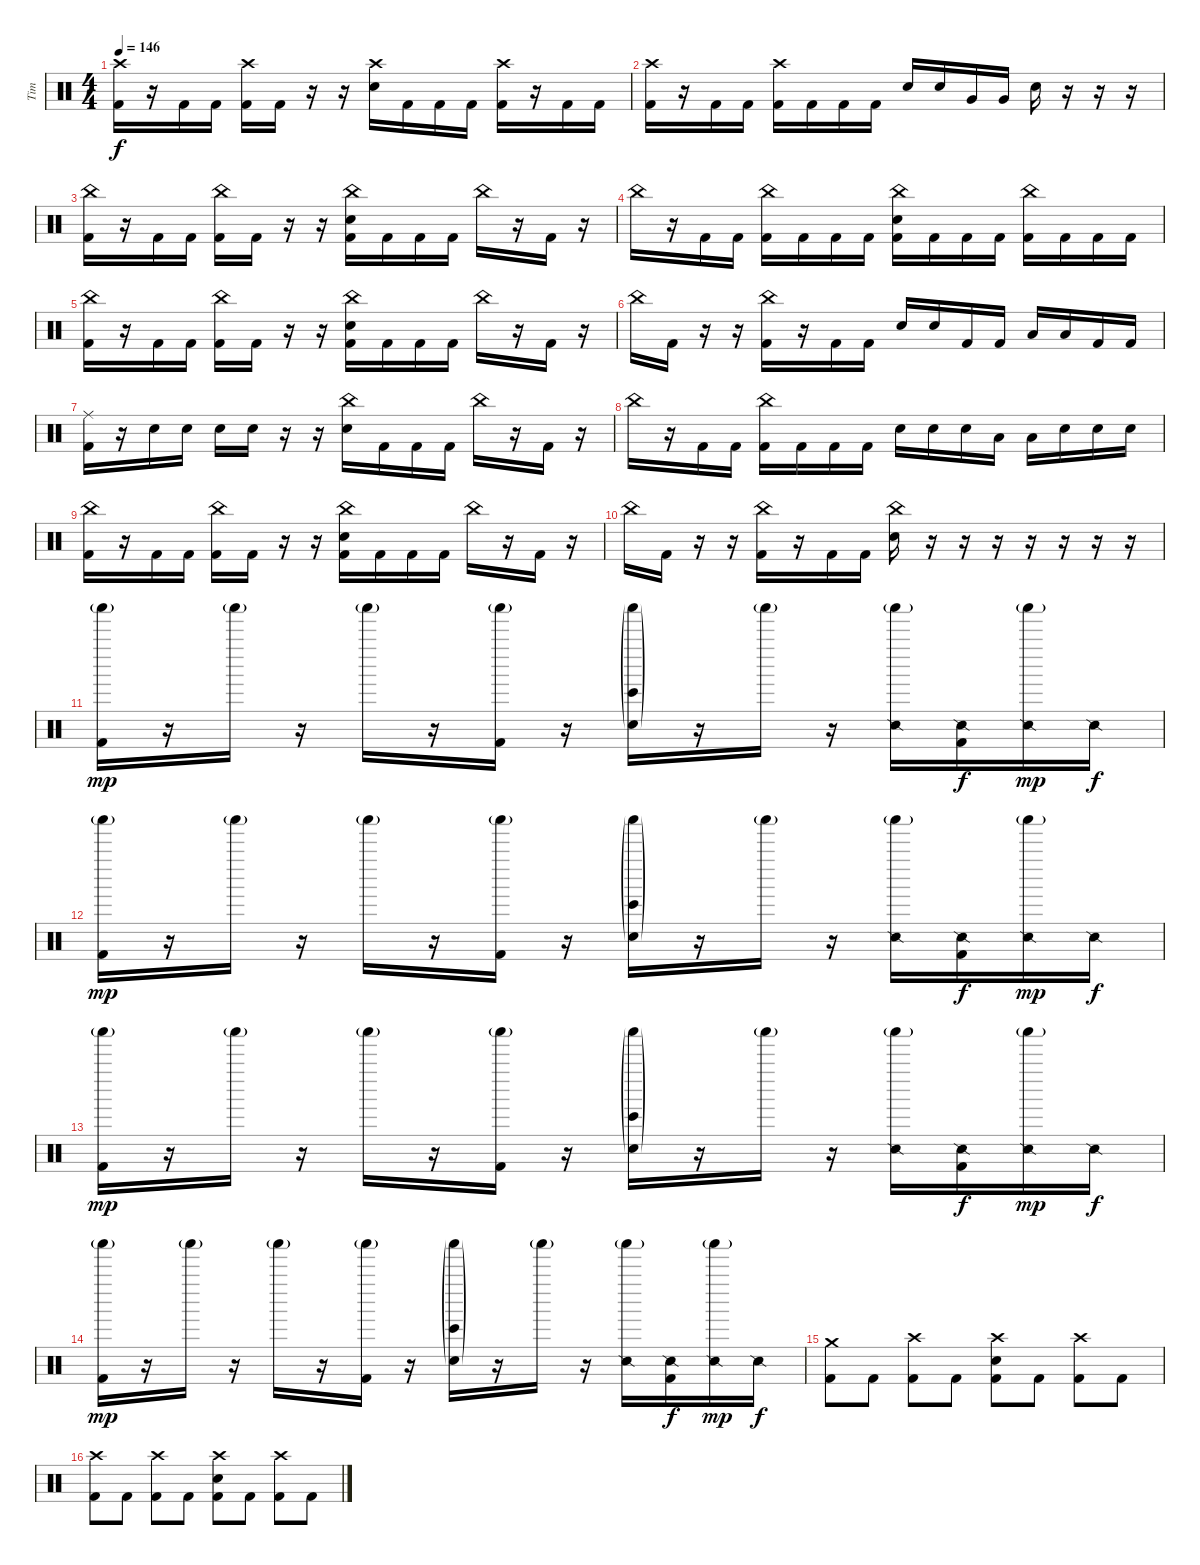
\track ("Tim" "Tim") {instrument percussion}
\staff {score}
\articulation defaults
\ts (4 4)
\tempo 146
\clef neutral
\ks c
("Crash high (hit)" "Kick (hit) 2").16{dy f} r.16 "Kick (hit) 2".16 "Kick (hit) 2".16 ("Crash high (hit)" "Kick (hit) 2").16 "Kick (hit) 2".16 r.16 r.16 ("Crash high (hit)" "Electric Snare (hit)").16 "Kick (hit) 2".16 "Kick (hit) 2".16 "Kick (hit) 2".16 ("Crash high (hit)" "Kick (hit) 2").16 r.16 "Kick (hit) 2".16 "Kick (hit) 2".16 |
("Crash high (hit)" "Kick (hit) 2").16 r.16 "Kick (hit) 2".16 "Kick (hit) 2".16 ("Crash high (hit)" "Kick (hit) 2").16 "Kick (hit) 2".16 "Kick (hit) 2".16 "Kick (hit) 2".16 "Electric Snare (hit)".16 "Electric Snare (hit)".16 "Very Low Tom (hit)".16 "Very Low Tom (hit)".16 "Electric Snare (hit)".16 r.16 r.16 r.16 |
("China (hit)" "Kick (hit) 2").16 r.16 "Kick (hit) 2".16 "Kick (hit) 2".16 ("China (hit)" "Kick (hit) 2").16 "Kick (hit) 2".16 r.16 r.16 ("China (hit)" "Electric Snare (hit)" "Kick (hit) 2").16 "Kick (hit) 2".16 "Kick (hit) 2".16 "Kick (hit) 2".16 "China (hit)".16 r.16 "Kick (hit) 2".16 r.16 |
"China (hit)".16 r.16 "Kick (hit) 2".16 "Kick (hit) 2".16 ("China (hit)" "Kick (hit) 2").16 "Kick (hit) 2".16 "Kick (hit) 2".16 "Kick (hit) 2".16 ("China (hit)" "Electric Snare (hit)" "Kick (hit) 2").16 "Kick (hit) 2".16 "Kick (hit) 2".16 "Kick (hit) 2".16 ("China (hit)" "Kick (hit) 2").16 "Kick (hit) 2".16 "Kick (hit) 2".16 "Kick (hit) 2".16 |
("China (hit)" "Kick (hit) 2").16 r.16 "Kick (hit) 2".16 "Kick (hit) 2".16 ("China (hit)" "Kick (hit) 2").16 "Kick (hit) 2".16 r.16 r.16 ("China (hit)" "Electric Snare (hit)" "Kick (hit) 2").16 "Kick (hit) 2".16 "Kick (hit) 2".16 "Kick (hit) 2".16 "China (hit)".16 r.16 "Kick (hit) 2".16 r.16 |
"China (hit)".16 "Kick (hit) 2".16 r.16 r.16 ("China (hit)" "Kick (hit) 2").16 r.16 "Kick (hit) 2".16 "Kick (hit) 2".16 "Electric Snare (hit)".16 "Electric Snare (hit)".16 "Kick (hit) 2".16 "Kick (hit) 2".16 "Low Tom (hit)".16 "Low Tom (hit)".16 "Kick (hit) 2".16 "Kick (hit) 2".16 |
("Ride (middle)" "Kick (hit) 2").16 r.16 "Electric Snare (hit)".16 "Electric Snare (hit)".16 "Electric Snare (hit)".16 "Electric Snare (hit)".16 r.16 r.16 ("China (hit)" "Electric Snare (hit)").16 "Kick (hit) 2".16 "Kick (hit) 2".16 "Kick (hit) 2".16 "China (hit)".16 r.16 "Kick (hit) 2".16 r.16 |
"China (hit)".16 r.16 "Kick (hit) 2".16 "Kick (hit) 2".16 ("China (hit)" "Kick (hit) 2").16 "Kick (hit) 2".16 "Kick (hit) 2".16 "Kick (hit) 2".16 "Electric Snare (hit)".16 "Electric Snare (hit)".16 "Electric Snare (hit)".16 "Low Tom (hit)".16 "Low Tom (hit)".16 "Electric Snare (hit)".16 "Electric Snare (hit)".16 "Electric Snare (hit)".16 |
("China (hit)" "Kick (hit) 2").16 r.16 "Kick (hit) 2".16 "Kick (hit) 2".16 ("China (hit)" "Kick (hit) 2").16 "Kick (hit) 2".16 r.16 r.16 ("China (hit)" "Electric Snare (hit)" "Kick (hit) 2").16 "Kick (hit) 2".16 "Kick (hit) 2".16 "Kick (hit) 2".16 "China (hit)".16 r.16 "Kick (hit) 2".16 r.16 |
"China (hit)".16 "Kick (hit) 2".16 r.16 r.16 ("China (hit)" "Kick (hit) 2").16 r.16 "Kick (hit) 2".16 "Kick (hit) 2".16 ("China (hit)" "Electric Snare (hit)").16 r.16 r.16 r.16 r.16 r.16 r.16 r.16 |
("Shaker (hit)"{g} "Kick (hit) 2").16{dy mp} r.16 "Shaker (hit)"{g}.16 r.16 "Shaker (hit)"{g}.16 r.16 ("Shaker (hit)"{g} "Kick (hit) 2").16 r.16 ("Shaker (hit)"{g} "Bongo High (hit)"{g} "Hand Clap (hit)"{g}).16 r.16 "Shaker (hit)"{g}.16 r.16 ("Shaker (hit)"{g} "Snare (side stick) 2").16 ("Snare (side stick) 2" "Kick (hit) 2").16{dy f} ("Shaker (hit)"{g} "Snare (side stick) 2").16{dy mp} "Snare (side stick) 2".16{dy f} |
("Shaker (hit)"{g} "Kick (hit) 2").16{dy mp} r.16 "Shaker (hit)"{g}.16 r.16 "Shaker (hit)"{g}.16 r.16 ("Shaker (hit)"{g} "Kick (hit) 2").16 r.16 ("Shaker (hit)"{g} "Bongo High (hit)"{g} "Hand Clap (hit)"{g}).16 r.16 "Shaker (hit)"{g}.16 r.16 ("Shaker (hit)"{g} "Snare (side stick) 2").16 ("Snare (side stick) 2" "Kick (hit) 2").16{dy f} ("Shaker (hit)"{g} "Snare (side stick) 2").16{dy mp} "Snare (side stick) 2".16{dy f} |
("Shaker (hit)"{g} "Kick (hit) 2").16{dy mp} r.16 "Shaker (hit)"{g}.16 r.16 "Shaker (hit)"{g}.16 r.16 ("Shaker (hit)"{g} "Kick (hit) 2").16 r.16 ("Shaker (hit)"{g} "Bongo High (hit)"{g} "Hand Clap (hit)"{g}).16 r.16 "Shaker (hit)"{g}.16 r.16 ("Shaker (hit)"{g} "Snare (side stick) 2").16 ("Snare (side stick) 2" "Kick (hit) 2").16{dy f} ("Shaker (hit)"{g} "Snare (side stick) 2").16{dy mp} "Snare (side stick) 2".16{dy f} |
("Shaker (hit)"{g} "Kick (hit) 2").16{dy mp} r.16 "Shaker (hit)"{g}.16 r.16 "Shaker (hit)"{g}.16 r.16 ("Shaker (hit)"{g} "Kick (hit) 2").16 r.16 ("Shaker (hit)"{g} "Bongo High (hit)"{g} "Hand Clap (hit)"{g}).16 r.16 "Shaker (hit)"{g}.16 r.16 ("Shaker (hit)"{g} "Snare (side stick) 2").16 ("Snare (side stick) 2" "Kick (hit) 2").16{dy f} ("Shaker (hit)"{g} "Snare (side stick) 2").16{dy mp} "Snare (side stick) 2".16{dy f} |
("Crash medium (hit)" "Kick (hit) 2").8 "Kick (hit) 2".8 ("Crash high (hit)" "Kick (hit) 2").8 "Kick (hit) 2".8 ("Crash high (hit)" "Electric Snare (hit)" "Kick (hit) 2").8 "Kick (hit) 2".8 ("Crash high (hit)" "Kick (hit) 2").8 "Kick (hit) 2".8 |
("Crash high (hit)" "Kick (hit) 2").8 "Kick (hit) 2".8 ("Crash high (hit)" "Kick (hit) 2").8 "Kick (hit) 2".8 ("Crash high (hit)" "Electric Snare (hit)" "Kick (hit) 2").8 "Kick (hit) 2".8 ("Crash high (hit)" "Kick (hit) 2").8 "Kick (hit) 2".8
